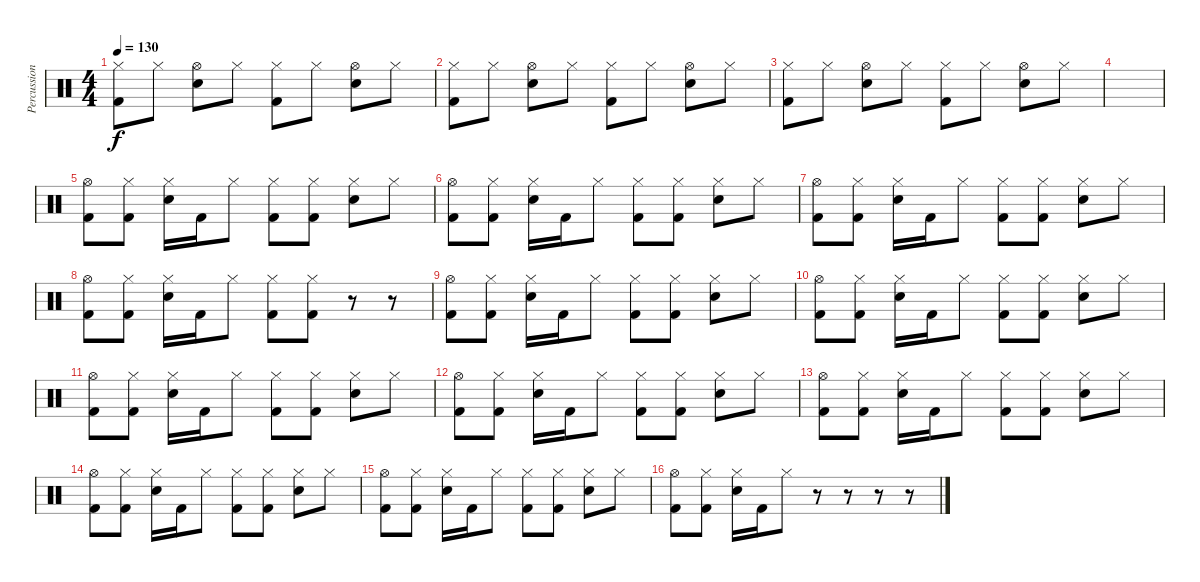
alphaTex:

\track ("Percussion" "Percussion") {instrument percussion}
\staff {score}
\articulation defaults
\ts (4 4)
\tempo 130
\clef neutral
\ks c
("Hi-Hat (closed)" "Kick (hit) 2").8{dy f} "Hi-Hat (closed)".8 ("Hi-Hat (open)" "Electric Snare (hit)").8 "Hi-Hat (closed)".8 ("Hi-Hat (closed)" "Kick (hit) 2").8 "Hi-Hat (closed)".8 ("Hi-Hat (open)" "Electric Snare (hit)").8 "Hi-Hat (closed)".8 |
("Hi-Hat (closed)" "Kick (hit) 2").8 "Hi-Hat (closed)".8 ("Hi-Hat (open)" "Electric Snare (hit)").8 "Hi-Hat (closed)".8 ("Hi-Hat (closed)" "Kick (hit) 2").8 "Hi-Hat (closed)".8 ("Hi-Hat (open)" "Electric Snare (hit)").8 "Hi-Hat (closed)".8 |
("Hi-Hat (closed)" "Kick (hit) 2").8 "Hi-Hat (closed)".8 ("Hi-Hat (open)" "Electric Snare (hit)").8 "Hi-Hat (closed)".8 ("Hi-Hat (closed)" "Kick (hit) 2").8 "Hi-Hat (closed)".8 ("Hi-Hat (open)" "Electric Snare (hit)").8 "Hi-Hat (closed)".8 |
|
("Hi-Hat (open)" "Kick (hit) 2").8 ("Hi-Hat (closed)" "Kick (hit) 2").8 ("Hi-Hat (closed)" "Electric Snare (hit)").16 "Kick (hit) 2".16 "Hi-Hat (closed)".8 ("Hi-Hat (closed)" "Kick (hit) 2").8 ("Hi-Hat (closed)" "Kick (hit) 2").8 ("Hi-Hat (closed)" "Electric Snare (hit)").8 "Hi-Hat (closed)".8 |
("Hi-Hat (open)" "Kick (hit) 2").8 ("Hi-Hat (closed)" "Kick (hit) 2").8 ("Hi-Hat (closed)" "Electric Snare (hit)").16 "Kick (hit) 2".16 "Hi-Hat (closed)".8 ("Hi-Hat (closed)" "Kick (hit) 2").8 ("Hi-Hat (closed)" "Kick (hit) 2").8 ("Hi-Hat (closed)" "Electric Snare (hit)").8 "Hi-Hat (closed)".8 |
("Hi-Hat (open)" "Kick (hit) 2").8 ("Hi-Hat (closed)" "Kick (hit) 2").8 ("Hi-Hat (closed)" "Electric Snare (hit)").16 "Kick (hit) 2".16 "Hi-Hat (closed)".8 ("Hi-Hat (closed)" "Kick (hit) 2").8 ("Hi-Hat (closed)" "Kick (hit) 2").8 ("Hi-Hat (closed)" "Electric Snare (hit)").8 "Hi-Hat (closed)".8 |
("Hi-Hat (open)" "Kick (hit) 2").8 ("Hi-Hat (closed)" "Kick (hit) 2").8 ("Hi-Hat (closed)" "Electric Snare (hit)").16 "Kick (hit) 2".16 "Hi-Hat (closed)".8 ("Hi-Hat (closed)" "Kick (hit) 2").8 ("Hi-Hat (closed)" "Kick (hit) 2").8 r.8 r.8 |
("Hi-Hat (open)" "Kick (hit) 2").8 ("Hi-Hat (closed)" "Kick (hit) 2").8 ("Hi-Hat (closed)" "Electric Snare (hit)").16 "Kick (hit) 2".16 "Hi-Hat (closed)".8 ("Hi-Hat (closed)" "Kick (hit) 2").8 ("Hi-Hat (closed)" "Kick (hit) 2").8 ("Hi-Hat (closed)" "Electric Snare (hit)").8 "Hi-Hat (closed)".8 |
("Hi-Hat (open)" "Kick (hit) 2").8 ("Hi-Hat (closed)" "Kick (hit) 2").8 ("Hi-Hat (closed)" "Electric Snare (hit)").16 "Kick (hit) 2".16 "Hi-Hat (closed)".8 ("Hi-Hat (closed)" "Kick (hit) 2").8 ("Hi-Hat (closed)" "Kick (hit) 2").8 ("Hi-Hat (closed)" "Electric Snare (hit)").8 "Hi-Hat (closed)".8 |
("Hi-Hat (open)" "Kick (hit) 2").8 ("Hi-Hat (closed)" "Kick (hit) 2").8 ("Hi-Hat (closed)" "Electric Snare (hit)").16 "Kick (hit) 2".16 "Hi-Hat (closed)".8 ("Hi-Hat (closed)" "Kick (hit) 2").8 ("Hi-Hat (closed)" "Kick (hit) 2").8 ("Hi-Hat (closed)" "Electric Snare (hit)").8 "Hi-Hat (closed)".8 |
("Hi-Hat (open)" "Kick (hit) 2").8 ("Hi-Hat (closed)" "Kick (hit) 2").8 ("Hi-Hat (closed)" "Electric Snare (hit)").16 "Kick (hit) 2".16 "Hi-Hat (closed)".8 ("Hi-Hat (closed)" "Kick (hit) 2").8 ("Hi-Hat (closed)" "Kick (hit) 2").8 ("Hi-Hat (closed)" "Electric Snare (hit)").8 "Hi-Hat (closed)".8 |
("Hi-Hat (open)" "Kick (hit) 2").8 ("Hi-Hat (closed)" "Kick (hit) 2").8 ("Hi-Hat (closed)" "Electric Snare (hit)").16 "Kick (hit) 2".16 "Hi-Hat (closed)".8 ("Hi-Hat (closed)" "Kick (hit) 2").8 ("Hi-Hat (closed)" "Kick (hit) 2").8 ("Hi-Hat (closed)" "Electric Snare (hit)").8 "Hi-Hat (closed)".8 |
("Hi-Hat (open)" "Kick (hit) 2").8 ("Hi-Hat (closed)" "Kick (hit) 2").8 ("Hi-Hat (closed)" "Electric Snare (hit)").16 "Kick (hit) 2".16 "Hi-Hat (closed)".8 ("Hi-Hat (closed)" "Kick (hit) 2").8 ("Hi-Hat (closed)" "Kick (hit) 2").8 ("Hi-Hat (closed)" "Electric Snare (hit)").8 "Hi-Hat (closed)".8 |
("Hi-Hat (open)" "Kick (hit) 2").8 ("Hi-Hat (closed)" "Kick (hit) 2").8 ("Hi-Hat (closed)" "Electric Snare (hit)").16 "Kick (hit) 2".16 "Hi-Hat (closed)".8 ("Hi-Hat (closed)" "Kick (hit) 2").8 ("Hi-Hat (closed)" "Kick (hit) 2").8 ("Hi-Hat (closed)" "Electric Snare (hit)").8 "Hi-Hat (closed)".8 |
("Hi-Hat (open)" "Kick (hit) 2").8 ("Hi-Hat (closed)" "Kick (hit) 2").8 ("Hi-Hat (closed)" "Electric Snare (hit)").16 "Kick (hit) 2".16 "Hi-Hat (closed)".8 r.8 r.8 r.8 r.8
